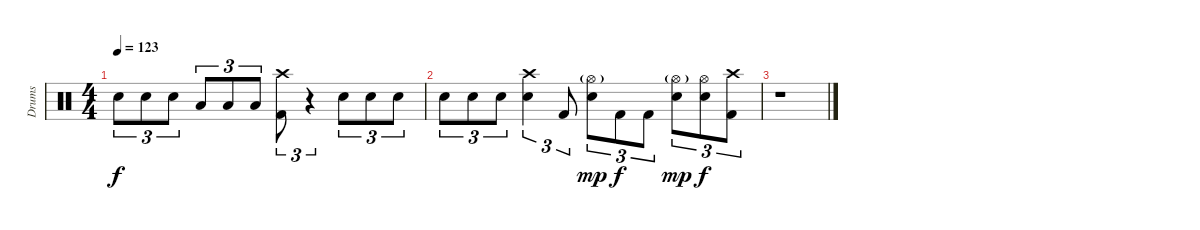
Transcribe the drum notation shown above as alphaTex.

\track ("Drums" "Drums") {instrument percussion}
\staff {score}
\articulation defaults
\ts (4 4)
\tempo 123
\clef neutral
\ks c "Electric Snare (hit)".8{tu (3 2) dy f} "Electric Snare (hit)".8{tu (3 2)} "Electric Snare (hit)".8{tu (3 2)} "Low Tom (hit)".8{tu (3 2)} "Low Tom (hit)".8{tu (3 2)} "Low Tom (hit)".8{tu (3 2)}
("Crash high (hit)" "Kick (hit) 2").8{tu (3 2)} r.4{tu (3 2)} "Electric Snare (hit)".8{tu (3 2)} "Electric Snare (hit)".8{tu (3 2)} "Electric Snare (hit)".8{tu (3 2)} |
"Electric Snare (hit)".8{tu (3 2)} "Electric Snare (hit)".8{tu (3 2)} "Electric Snare (hit)".8{tu (3 2)} ("Electric Snare (hit)" "Crash high (hit)").4{tu (3 2)} "Kick (hit) 2".8{tu (3 2)} ("Electric Snare (hit)" "Hi-Hat (open)"{g}).8{tu (3 2) dy mp} "Kick (hit) 2".8{tu (3 2) dy f} "Kick (hit) 2".8{tu (3 2)} ("Electric Snare (hit)" "Hi-Hat (open)"{g}).8{tu (3 2) dy mp} ("Electric Snare (hit)" "Hi-Hat (open)").8{tu (3 2) dy f} ("Crash high (hit)" "Kick (hit) 2").8{tu (3 2)} |
r.1
